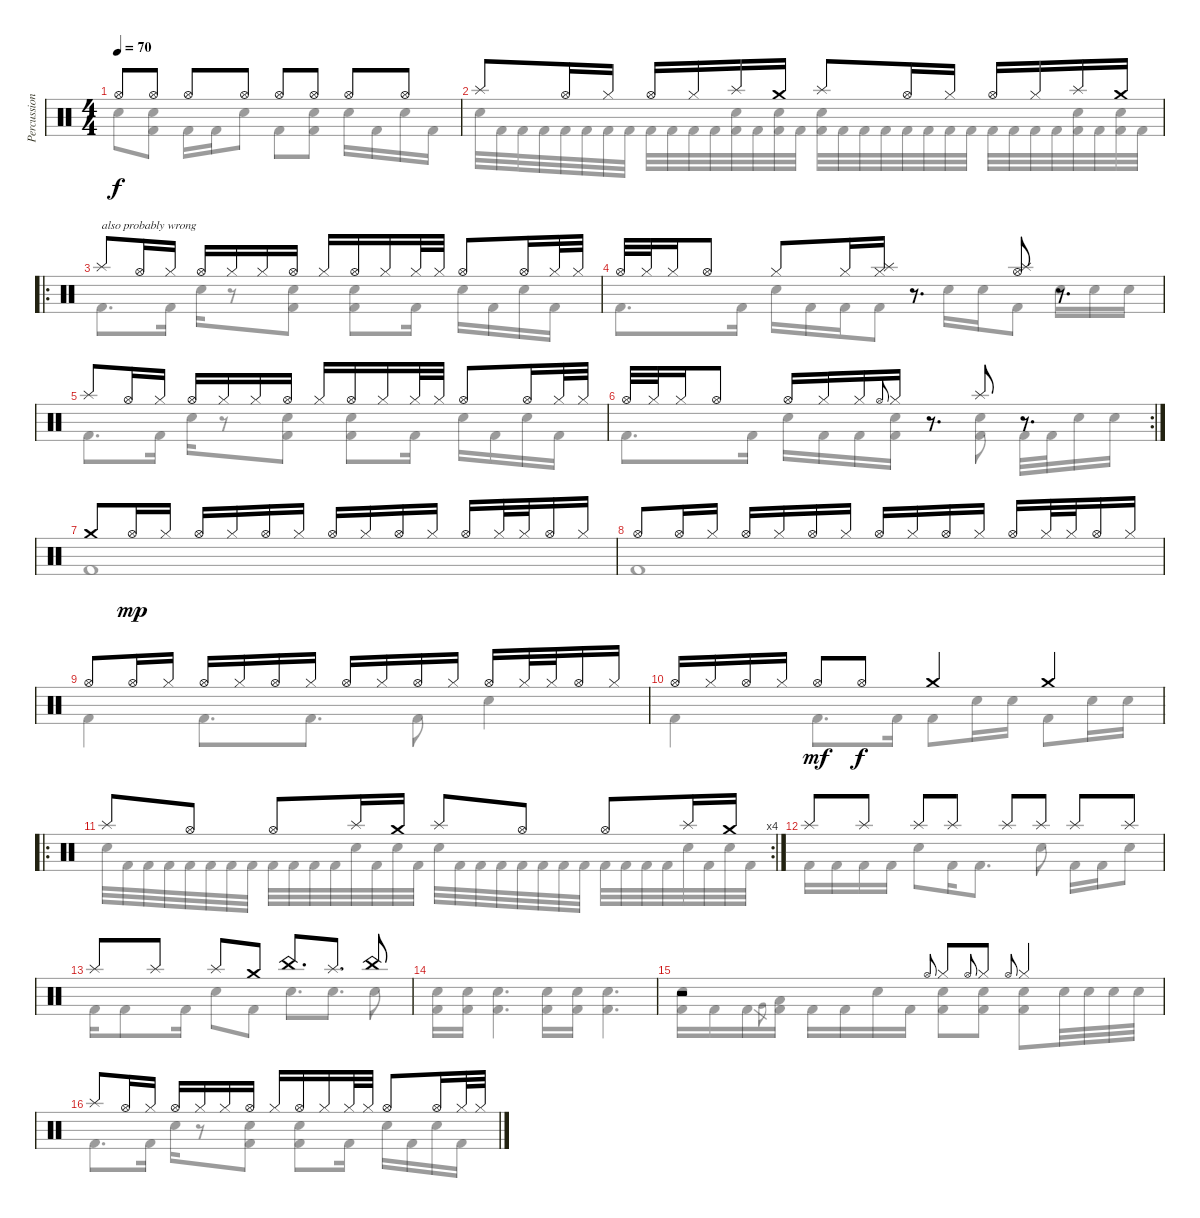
\track ("Percussion" "Percussion") {instrument percussion}
\staff {score}
\articulation defaults
\voice
\ts (4 4)
\tempo 70
\clef neutral
\ks c "Hi-Hat (open)".8{dy f} "Hi-Hat (open)".8 "Hi-Hat (open)".8 "Hi-Hat (open)".8 "Hi-Hat (open)".8 "Hi-Hat (open)".8 "Hi-Hat (open)".8 "Hi-Hat (open)".8
|
"Splash (hit)".8 "Hi-Hat (open)".16 "Hi-Hat (closed)".16 "Hi-Hat (open)".16 "Hi-Hat (closed)".16 "Splash (hit)".16 "Crash medium (hit)".16 "Splash (hit)".8 "Hi-Hat (open)".16 "Hi-Hat (closed)".16 "Hi-Hat (open)".16 "Hi-Hat (closed)".16 "Splash (hit)".16 "Crash medium (hit)".16 |
\ro "Splash (hit)".8{txt "also probably wrong"} "Hi-Hat (open)".16 "Hi-Hat (closed)".16 "Hi-Hat (open)".16 "Hi-Hat (closed)".16 "Hi-Hat (closed)".16 "Hi-Hat (open)".16 "Hi-Hat (closed)".16 "Hi-Hat (open)".16 "Hi-Hat (closed)".16 "Hi-Hat (closed)".32 "Hi-Hat (closed)".32 "Hi-Hat (open)".8 "Hi-Hat (open)".16 "Hi-Hat (closed)".32 "Hi-Hat (closed)".32
|
"Hi-Hat (open)".32 "Hi-Hat (closed)".32 "Hi-Hat (closed)".16 "Hi-Hat (open)".8 "Hi-Hat (closed)".8 "Hi-Hat (closed)".16 ("Splash (hit)" "Hi-Hat (closed)").16 r.8{d} ("Splash (hit)" "Hi-Hat (open)").8 r.8{d} |
"Splash (hit)".8 "Hi-Hat (open)".16 "Hi-Hat (closed)".16 "Hi-Hat (open)".16 "Hi-Hat (closed)".16 "Hi-Hat (closed)".16 "Hi-Hat (open)".16 "Hi-Hat (closed)".16 "Hi-Hat (open)".16 "Hi-Hat (closed)".16 "Hi-Hat (closed)".32 "Hi-Hat (closed)".32 "Hi-Hat (open)".8 "Hi-Hat (open)".16 "Hi-Hat (closed)".32 "Hi-Hat (closed)".32 |
\rc 2 "Hi-Hat (open)".32 "Hi-Hat (closed)".32 "Hi-Hat (closed)".16 "Hi-Hat (open)".8 "Hi-Hat (open)".16 "Hi-Hat (closed)".16 "Hi-Hat (closed)".16 "Hi-Hat (open)".8{gr onbeat} "Hi-Hat (closed)".16
r.8{d} "Splash (hit)".8 r.8{d} |
"Crash medium (hit)".8 "Hi-Hat (open)".16{dy mp} "Hi-Hat (closed)".16 "Hi-Hat (open)".16 "Hi-Hat (closed)".16 "Hi-Hat (open)".16 "Hi-Hat (closed)".16 "Hi-Hat (open)".16 "Hi-Hat (closed)".16 "Hi-Hat (open)".16 "Hi-Hat (closed)".16 "Hi-Hat (open)".16 "Hi-Hat (closed)".32 "Hi-Hat (closed)".32 "Hi-Hat (open)".16 "Hi-Hat (closed)".16 |
"Hi-Hat (open)".8 "Hi-Hat (open)".16 "Hi-Hat (closed)".16 "Hi-Hat (open)".16 "Hi-Hat (closed)".16 "Hi-Hat (open)".16 "Hi-Hat (closed)".16 "Hi-Hat (open)".16 "Hi-Hat (closed)".16 "Hi-Hat (open)".16 "Hi-Hat (closed)".16 "Hi-Hat (open)".16 "Hi-Hat (closed)".32 "Hi-Hat (closed)".32 "Hi-Hat (open)".16 "Hi-Hat (closed)".16 |
"Hi-Hat (open)".8 "Hi-Hat (open)".16 "Hi-Hat (closed)".16 "Hi-Hat (open)".16 "Hi-Hat (closed)".16 "Hi-Hat (open)".16 "Hi-Hat (closed)".16 "Hi-Hat (open)".16 "Hi-Hat (closed)".16 "Hi-Hat (open)".16 "Hi-Hat (closed)".16 "Hi-Hat (open)".16 "Hi-Hat (closed)".32 "Hi-Hat (closed)".32 "Hi-Hat (open)".16 "Hi-Hat (closed)".16 |
"Hi-Hat (open)".16 "Hi-Hat (closed)".16 "Hi-Hat (open)".16 "Hi-Hat (closed)".16 "Hi-Hat (open)".8{dy mf} "Hi-Hat (open)".8{dy f} "Crash medium (hit)".4 "Crash medium (hit)".4 |
\ro
\rc 4 "Splash (hit)".8 "Hi-Hat (open)".8 "Hi-Hat (open)".8 "Splash (hit)".16 "Crash medium (hit)".16 "Splash (hit)".8 "Hi-Hat (open)".8 "Hi-Hat (open)".8 "Splash (hit)".16 "Crash medium (hit)".16
|
"Splash (hit)".8 "Splash (hit)".8 "Splash (hit)".8 "Splash (hit)".8 "Splash (hit)".8 "Splash (hit)".8 "Splash (hit)".8 "Splash (hit)".8 |
"Splash (hit)".8 "Splash (hit)".8 "Splash (hit)".8 "Crash medium (hit)".8 "China (hit)".8{d} "Splash (hit)".8{d} "China (hit)".8 |
|
r.2 "Hi-Hat (open)".8{gr onbeat} "Hi-Hat (closed)".8 "Hi-Hat (open)".8{gr onbeat} "Hi-Hat (closed)".8 "Hi-Hat (open)".8{gr onbeat} "Hi-Hat (closed)".4 |
"Splash (hit)".8 "Hi-Hat (open)".16 "Hi-Hat (closed)".16 "Hi-Hat (open)".16 "Hi-Hat (closed)".16 "Hi-Hat (closed)".16 "Hi-Hat (open)".16 "Hi-Hat (closed)".16 "Hi-Hat (open)".16 "Hi-Hat (closed)".16 "Hi-Hat (closed)".32 "Hi-Hat (closed)".32 "Hi-Hat (open)".8 "Hi-Hat (open)".16 "Hi-Hat (closed)".32 "Hi-Hat (closed)".32
\voice
\clef neutral
\ottava regular
\simile none
\ks c "Snare (hit) 2".8{dy f}
("Snare (hit) 2" "Kick (hit) 2").8 "Kick (hit) 2".16 "Kick (hit) 2".16 "Snare (hit) 2".8 "Kick (hit) 2".8 ("Snare (hit) 2" "Kick (hit) 2").8 "Snare (hit) 2".16 "Kick (hit) 2".16 "Snare (hit) 2".16 "Kick (hit) 2".16 |
"Snare (hit) 2".32 "Kick (hit) 2".32 "Kick (hit) 2".32 "Kick (hit) 2".32 "Kick (hit) 2".32 "Kick (hit) 2".32 "Kick (hit) 2".32 "Kick (hit) 2".32 "Kick (hit) 2".32 "Kick (hit) 2".32 "Kick (hit) 2".32 "Kick (hit) 2".32 ("Snare (hit) 2" "Kick (hit) 2").32 "Kick (hit) 2".32 ("Snare (hit) 2" "Kick (hit) 2").32 "Kick (hit) 2".32 ("Snare (hit) 2" "Kick (hit) 2").32 "Kick (hit) 2".32 "Kick (hit) 2".32 "Kick (hit) 2".32 "Kick (hit) 2".32 "Kick (hit) 2".32 "Kick (hit) 2".32 "Kick (hit) 2".32 "Kick (hit) 2".32 "Kick (hit) 2".32 "Kick (hit) 2".32 "Kick (hit) 2".32 ("Snare (hit) 2" "Kick (hit) 2").32 "Kick (hit) 2".32 ("Snare (hit) 2" "Kick (hit) 2").32 "Kick (hit) 2".32 |
"Kick (hit) 2".8{d} "Kick (hit) 2".16 "Snare (hit) 2".16 r.8 ("Snare (hit) 2" "Kick (hit) 2").8 ("Snare (hit) 2" "Kick (hit) 2").8 "Kick (hit) 2".16 "Snare (hit) 2".16 "Kick (hit) 2".16 "Snare (hit) 2".16 "Kick (hit) 2".16 |
"Kick (hit) 2".8{d} "Kick (hit) 2".16 "Snare (hit) 2".16 "Kick (hit) 2".16 "Kick (hit) 2".16 "Kick (hit) 2".8 "Snare (hit) 2".16 "Snare (hit) 2".16 "Kick (hit) 2".8 "Snare (hit) 2".16 "Snare (hit) 2".16 "Snare (hit) 2".16 |
"Kick (hit) 2".8{d} "Kick (hit) 2".16 "Snare (hit) 2".16 r.8 ("Snare (hit) 2" "Kick (hit) 2").8 ("Snare (hit) 2" "Kick (hit) 2").8 "Kick (hit) 2".16 "Snare (hit) 2".16 "Kick (hit) 2".16 "Snare (hit) 2".16 "Kick (hit) 2".16 |
"Kick (hit) 2".8{d} "Kick (hit) 2".16 "Snare (hit) 2".16 "Kick (hit) 2".16 "Kick (hit) 2".16 ("Snare (hit) 2" "Kick (hit) 2").16 r.8{d} ("Snare (hit) 2" "Kick (hit) 2").8 "Kick (hit) 2".32 "Kick (hit) 2".32 "Snare (hit) 2".16 "Snare (hit) 2".16 |
"Kick (hit) 2".1 |
"Kick (hit) 2".1 |
"Kick (hit) 2".4 "Kick (hit) 2".8{d} "Kick (hit) 2".8{d} "Kick (hit) 2".8 "Snare (hit) 2".4 |
"Kick (hit) 2".4 "Kick (hit) 2".8{d} "Kick (hit) 2".16 "Kick (hit) 2".8 "Snare (hit) 2".16 "Snare (hit) 2".16 "Kick (hit) 2".8 "Snare (hit) 2".16 "Snare (hit) 2".16 |
"Snare (hit) 2".32 "Kick (hit) 2".32 "Kick (hit) 2".32 "Kick (hit) 2".32 "Kick (hit) 2".32 "Kick (hit) 2".32 "Kick (hit) 2".32 "Kick (hit) 2".32 "Kick (hit) 2".32 "Kick (hit) 2".32 "Kick (hit) 2".32 "Kick (hit) 2".32 "Snare (hit) 2".32 "Kick (hit) 2".32 "Snare (hit) 2".32 "Kick (hit) 2".32 "Snare (hit) 2".32 "Kick (hit) 2".32 "Kick (hit) 2".32 "Kick (hit) 2".32 "Kick (hit) 2".32 "Kick (hit) 2".32 "Kick (hit) 2".32 "Kick (hit) 2".32 "Kick (hit) 2".32 "Kick (hit) 2".32 "Kick (hit) 2".32 "Kick (hit) 2".32 "Snare (hit) 2".32 "Kick (hit) 2".32 "Snare (hit) 2".32 "Kick (hit) 2".32 |
"Kick (hit) 2".16 "Kick (hit) 2".16 "Kick (hit) 2".16 "Kick (hit) 2".16 "Snare (hit) 2".8 "Kick (hit) 2".16 "Kick (hit) 2".8{d} "Snare (hit) 2".8 "Kick (hit) 2".16 "Kick (hit) 2".16 "Snare (hit) 2".8 |
"Kick (hit) 2".16 "Kick (hit) 2".8 "Kick (hit) 2".16 "Snare (hit) 2".8 "Kick (hit) 2".8 "Snare (hit) 2".8{d} "Snare (hit) 2".8{d} "Snare (hit) 2".8 |
("Snare (hit) 2" "Kick (hit) 2").16 ("Snare (hit) 2" "Kick (hit) 2").16 ("Snare (hit) 2" "Kick (hit) 2").4{d} ("Snare (hit) 2" "Kick (hit) 2").16 ("Snare (hit) 2" "Kick (hit) 2").16 ("Snare (hit) 2" "Kick (hit) 2").4{d} |
("Snare (hit) 2" "Kick (hit) 2").16 "Kick (hit) 2".16 "Kick (hit) 2".16 "Very Low Tom (hit)".8{gr} ("Low Floor Tom (hit)" "Kick (hit) 2").16 "Kick (hit) 2".16 "Kick (hit) 2".16 "Snare (hit) 2".16 "Kick (hit) 2".16 ("Snare (hit) 2" "Kick (hit) 2").8 ("Snare (hit) 2" "Kick (hit) 2").8 ("Snare (hit) 2" "Kick (hit) 2").8 "Snare (hit) 2".32 "Snare (hit) 2".32 "Snare (hit) 2".32 "Snare (hit) 2".32 |
"Kick (hit) 2".8{d} "Kick (hit) 2".16 "Snare (hit) 2".16 r.8 ("Snare (hit) 2" "Kick (hit) 2").8 ("Snare (hit) 2" "Kick (hit) 2").8 "Kick (hit) 2".16 "Snare (hit) 2".16 "Kick (hit) 2".16 "Snare (hit) 2".16 "Kick (hit) 2".16
